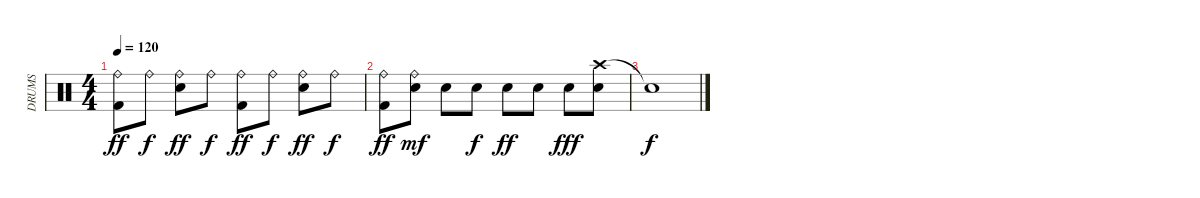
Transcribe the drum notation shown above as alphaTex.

\track ("DRUMS" "DRUMS") {instrument percussion}
\staff {score}
\articulation defaults
\ts (4 4)
\tempo 120
\clef neutral
\ks c
("Ride (bell)" "Kick (hit) 2").8{dy ff} "Ride (bell)".8{dy f} ("Ride (bell)" "Electric Snare (hit)").8{dy ff} "Ride (bell)".8{dy f} ("Ride (bell)" "Kick (hit) 2").8{dy ff} "Ride (bell)".8{dy f} ("Ride (bell)" "Electric Snare (hit)").8{dy ff} "Ride (bell)".8{dy f} |
("Ride (bell)" "Kick (hit) 2").8{dy ff} ("Ride (bell)" "Electric Snare (hit)").8{dy mf} "Electric Snare (hit)".8 "Electric Snare (hit)".8{dy f} "Electric Snare (hit)".8{dy ff} "Electric Snare (hit)".8 "Electric Snare (hit)".8{dy fff} ("Crash high (hit)" "Electric Snare (hit)").8 |
"Snare (hit)"{t}.1{dy f}
